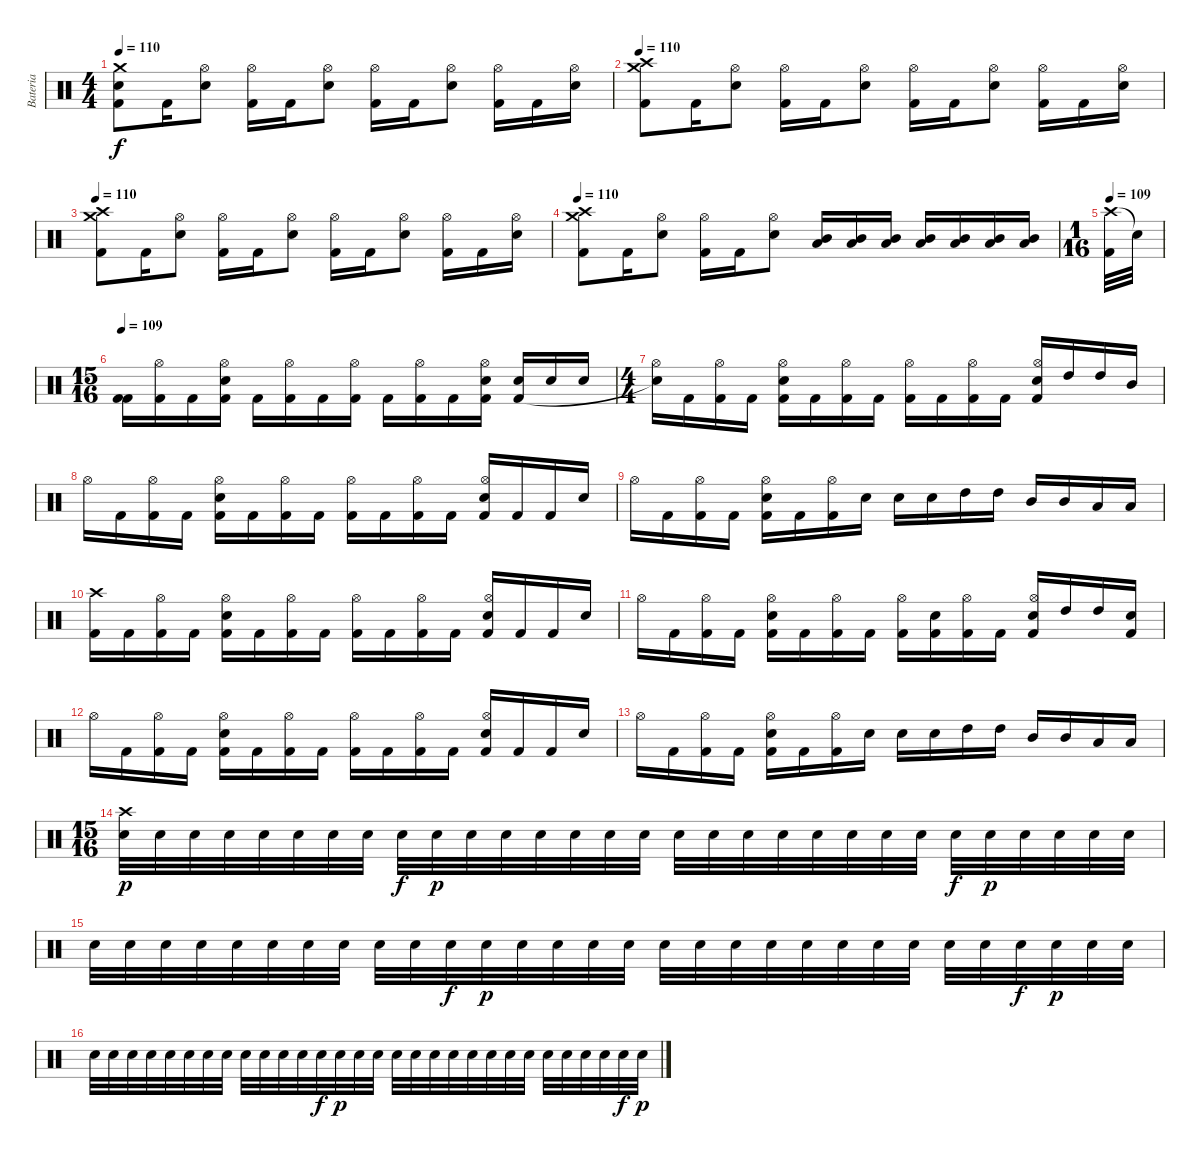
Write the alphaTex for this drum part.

\track ("Bateria" "Bateria") {instrument percussion}
\staff {score}
\articulation defaults
\ts (4 4)
\tempo 110
\clef neutral
\ks c
("Crash medium (hit)" "Snare (hit)" "Kick (hit) 2").8{dy f} "Kick (hit) 2".16 ("Hi-Hat (open)" "Electric Snare (hit)").8 ("Hi-Hat (open)" "Kick (hit) 2").16 "Kick (hit) 2".16 ("Hi-Hat (open)" "Electric Snare (hit)").8 ("Hi-Hat (open)" "Kick (hit) 2").16 "Kick (hit) 2".16 ("Hi-Hat (open)" "Electric Snare (hit)").8 ("Hi-Hat (open)" "Kick (hit) 2").16 "Kick (hit) 2".16 ("Hi-Hat (open)" "Electric Snare (hit)").16 |
\tempo 110
("Crash medium (hit)" "Crash high (hit)" "Kick (hit) 2").8 "Kick (hit) 2".16 ("Hi-Hat (open)" "Electric Snare (hit)").8 ("Hi-Hat (open)" "Kick (hit) 2").16 "Kick (hit) 2".16 ("Hi-Hat (open)" "Electric Snare (hit)").8 ("Hi-Hat (open)" "Kick (hit) 2").16 "Kick (hit) 2".16 ("Hi-Hat (open)" "Electric Snare (hit)").8 ("Hi-Hat (open)" "Kick (hit) 2").16 "Kick (hit) 2".16 ("Hi-Hat (open)" "Electric Snare (hit)").16 |
\tempo 110
("Crash medium (hit)" "Crash high (hit)" "Kick (hit) 2").8 "Kick (hit) 2".16 ("Hi-Hat (open)" "Electric Snare (hit)").8 ("Hi-Hat (open)" "Kick (hit) 2").16 "Kick (hit) 2".16 ("Hi-Hat (open)" "Electric Snare (hit)").8 ("Hi-Hat (open)" "Kick (hit) 2").16 "Kick (hit) 2".16 ("Hi-Hat (open)" "Electric Snare (hit)").8 ("Hi-Hat (open)" "Kick (hit) 2").16 "Kick (hit) 2".16 ("Hi-Hat (open)" "Electric Snare (hit)").16 |
\tempo 110
("Crash medium (hit)" "Crash high (hit)" "Kick (hit) 2").8 "Kick (hit) 2".16 ("Hi-Hat (open)" "Electric Snare (hit)").8 ("Hi-Hat (open)" "Kick (hit) 2").16 "Kick (hit) 2".16 ("Hi-Hat (open)" "Electric Snare (hit)").8 ("Low Tom (hit)" "Mid Tom (hit)").16 ("Low Tom (hit)" "Mid Tom (hit)").16 ("Low Tom (hit)" "Mid Tom (hit)").16 ("Low Tom (hit)" "Mid Tom (hit)").16 ("Low Tom (hit)" "Mid Tom (hit)").16 ("Low Tom (hit)" "Mid Tom (hit)").16 ("Low Tom (hit)" "Mid Tom (hit)").16 |
\ts (1 16)
\tempo 109
("Crash high (hit)" "Kick (hit) 2").32 "Snare (hit)"{t}.32 |
\ts (15 16)
\tempo 109
("Kick (hit) 2" "Kick (hit) 2").16 ("Hi-Hat (open)" "Kick (hit) 2").16 "Kick (hit) 2".16 ("Hi-Hat (open)" "Electric Snare (hit)" "Kick (hit) 2").16 "Kick (hit) 2".16 ("Hi-Hat (open)" "Kick (hit) 2").16 "Kick (hit) 2".16 ("Hi-Hat (open)" "Kick (hit) 2").16 "Kick (hit) 2".16 ("Hi-Hat (open)" "Kick (hit) 2").16 "Kick (hit) 2".16 ("Hi-Hat (open)" "Electric Snare (hit)" "Kick (hit) 2").16 ("Electric Snare (hit)" "Kick (hit) 2").16 "Electric Snare (hit)".16 "Electric Snare (hit)".16 |
\ts (4 4)
("Hi-Hat (open)" "Snare (hit)"{t}).16 "Kick (hit) 2".16 ("Hi-Hat (open)" "Kick (hit) 2").16 "Kick (hit) 2".16 ("Hi-Hat (open)" "Electric Snare (hit)" "Kick (hit) 2").16 "Kick (hit) 2".16 ("Hi-Hat (open)" "Kick (hit) 2").16 "Kick (hit) 2".16 ("Hi-Hat (open)" "Kick (hit) 2").16 "Kick (hit) 2".16 ("Hi-Hat (open)" "Kick (hit) 2").16 "Kick (hit) 2".16 ("Hi-Hat (open)" "Electric Snare (hit)" "Kick (hit) 2").16 "High Tom (hit)".16 "High Tom (hit)".16 "Mid Tom (hit)".16 |
"Hi-Hat (open)".16 "Kick (hit) 2".16 ("Hi-Hat (open)" "Kick (hit) 2").16 "Kick (hit) 2".16 ("Hi-Hat (open)" "Electric Snare (hit)" "Kick (hit) 2").16 "Kick (hit) 2".16 ("Hi-Hat (open)" "Kick (hit) 2").16 "Kick (hit) 2".16 ("Hi-Hat (open)" "Kick (hit) 2").16 "Kick (hit) 2".16 ("Hi-Hat (open)" "Kick (hit) 2").16 "Kick (hit) 2".16 ("Hi-Hat (open)" "Electric Snare (hit)" "Kick (hit) 2").16 "Kick (hit) 2".16 "Kick (hit) 2".16 "Electric Snare (hit)".16 |
"Hi-Hat (open)".16 "Kick (hit) 2".16 ("Hi-Hat (open)" "Kick (hit) 2").16 "Kick (hit) 2".16 ("Hi-Hat (open)" "Electric Snare (hit)" "Kick (hit) 2").16 "Kick (hit) 2".16 ("Hi-Hat (open)" "Kick (hit) 2").16 "Electric Snare (hit)".16 "Electric Snare (hit)".16 "Electric Snare (hit)".16 "High Tom (hit)".16 "High Tom (hit)".16 "Mid Tom (hit)".16 "Mid Tom (hit)".16 "Low Tom (hit)".16 "Low Tom (hit)".16 |
("Crash high (hit)" "Kick (hit) 2").16 "Kick (hit) 2".16 ("Hi-Hat (open)" "Kick (hit) 2").16 "Kick (hit) 2".16 ("Hi-Hat (open)" "Electric Snare (hit)" "Kick (hit) 2").16 "Kick (hit) 2".16 ("Hi-Hat (open)" "Kick (hit) 2").16 "Kick (hit) 2".16 ("Hi-Hat (open)" "Kick (hit) 2").16 "Kick (hit) 2".16 ("Hi-Hat (open)" "Kick (hit) 2").16 "Kick (hit) 2".16 ("Hi-Hat (open)" "Electric Snare (hit)" "Kick (hit) 2").16 "Kick (hit) 2".16 "Kick (hit) 2".16 "Electric Snare (hit)".16 |
"Hi-Hat (open)".16 "Kick (hit) 2".16 ("Hi-Hat (open)" "Kick (hit) 2").16 "Kick (hit) 2".16 ("Hi-Hat (open)" "Electric Snare (hit)" "Kick (hit) 2").16 "Kick (hit) 2".16 ("Hi-Hat (open)" "Kick (hit) 2").16 "Kick (hit) 2".16 ("Hi-Hat (open)" "Kick (hit) 2").16 ("Electric Snare (hit)" "Kick (hit) 2").16 ("Hi-Hat (open)" "Kick (hit) 2").16 "Kick (hit) 2".16 ("Hi-Hat (open)" "Electric Snare (hit)" "Kick (hit) 2").16 "High Tom (hit)".16 "High Tom (hit)".16 ("Kick (hit) 2" "Electric Snare (hit)").16 |
"Hi-Hat (open)".16 "Kick (hit) 2".16 ("Hi-Hat (open)" "Kick (hit) 2").16 "Kick (hit) 2".16 ("Hi-Hat (open)" "Electric Snare (hit)" "Kick (hit) 2").16 "Kick (hit) 2".16 ("Hi-Hat (open)" "Kick (hit) 2").16 "Kick (hit) 2".16 ("Hi-Hat (open)" "Kick (hit) 2").16 "Kick (hit) 2".16 ("Hi-Hat (open)" "Kick (hit) 2").16 "Kick (hit) 2".16 ("Hi-Hat (open)" "Electric Snare (hit)" "Kick (hit) 2").16 "Kick (hit) 2".16 "Kick (hit) 2".16 "Electric Snare (hit)".16 |
"Hi-Hat (open)".16 "Kick (hit) 2".16 ("Hi-Hat (open)" "Kick (hit) 2").16 "Kick (hit) 2".16 ("Hi-Hat (open)" "Electric Snare (hit)" "Kick (hit) 2").16 "Kick (hit) 2".16 ("Hi-Hat (open)" "Kick (hit) 2").16 "Electric Snare (hit)".16 "Electric Snare (hit)".16 "Electric Snare (hit)".16 "High Tom (hit)".16 "High Tom (hit)".16 "Mid Tom (hit)".16 "Mid Tom (hit)".16 "Low Tom (hit)".16 "Low Tom (hit)".16 |
\ts (15 16)
("Electric Snare (hit)" "Crash high (hit)").32{dy p} "Electric Snare (hit)".32 "Electric Snare (hit)".32 "Electric Snare (hit)".32 "Electric Snare (hit)".32 "Electric Snare (hit)".32 "Electric Snare (hit)".32 "Electric Snare (hit)".32 "Electric Snare (hit)".32{dy f} "Electric Snare (hit)".32{dy p} "Electric Snare (hit)".32 "Electric Snare (hit)".32 "Electric Snare (hit)".32 "Electric Snare (hit)".32 "Electric Snare (hit)".32 "Electric Snare (hit)".32 "Electric Snare (hit)".32 "Electric Snare (hit)".32 "Electric Snare (hit)".32 "Electric Snare (hit)".32 "Electric Snare (hit)".32 "Electric Snare (hit)".32 "Electric Snare (hit)".32 "Electric Snare (hit)".32 "Electric Snare (hit)".32{dy f} "Electric Snare (hit)".32{dy p} "Electric Snare (hit)".32 "Electric Snare (hit)".32 "Electric Snare (hit)".32 "Electric Snare (hit)".32 |
"Electric Snare (hit)".32 "Electric Snare (hit)".32 "Electric Snare (hit)".32 "Electric Snare (hit)".32 "Electric Snare (hit)".32 "Electric Snare (hit)".32 "Electric Snare (hit)".32 "Electric Snare (hit)".32 "Electric Snare (hit)".32 "Electric Snare (hit)".32 "Electric Snare (hit)".32{dy f} "Electric Snare (hit)".32{dy p} "Electric Snare (hit)".32 "Electric Snare (hit)".32 "Electric Snare (hit)".32 "Electric Snare (hit)".32 "Electric Snare (hit)".32 "Electric Snare (hit)".32 "Electric Snare (hit)".32 "Electric Snare (hit)".32 "Electric Snare (hit)".32 "Electric Snare (hit)".32 "Electric Snare (hit)".32 "Electric Snare (hit)".32 "Electric Snare (hit)".32 "Electric Snare (hit)".32 "Electric Snare (hit)".32{dy f} "Electric Snare (hit)".32{dy p} "Electric Snare (hit)".32 "Electric Snare (hit)".32 |
"Electric Snare (hit)".32 "Electric Snare (hit)".32 "Electric Snare (hit)".32 "Electric Snare (hit)".32 "Electric Snare (hit)".32 "Electric Snare (hit)".32 "Electric Snare (hit)".32 "Electric Snare (hit)".32 "Electric Snare (hit)".32 "Electric Snare (hit)".32 "Electric Snare (hit)".32 "Electric Snare (hit)".32 "Electric Snare (hit)".32{dy f} "Electric Snare (hit)".32{dy p} "Electric Snare (hit)".32 "Electric Snare (hit)".32 "Electric Snare (hit)".32 "Electric Snare (hit)".32 "Electric Snare (hit)".32 "Electric Snare (hit)".32 "Electric Snare (hit)".32 "Electric Snare (hit)".32 "Electric Snare (hit)".32 "Electric Snare (hit)".32 "Electric Snare (hit)".32 "Electric Snare (hit)".32 "Electric Snare (hit)".32 "Electric Snare (hit)".32 "Electric Snare (hit)".32{dy f} "Electric Snare (hit)".32{dy p}
